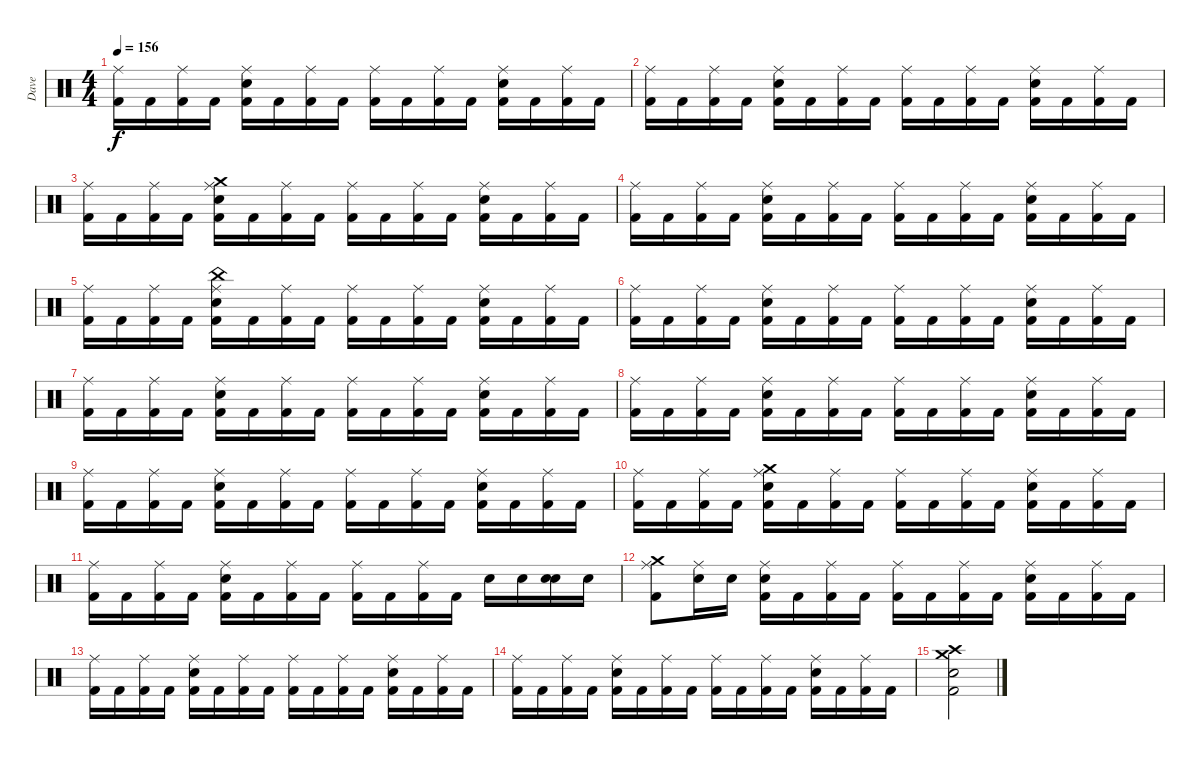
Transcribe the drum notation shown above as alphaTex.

\track ("Dave" "Dave") {instrument percussion}
\staff {score}
\articulation defaults
\ts (4 4)
\tempo 156
\clef neutral
\ks c
("Kick (hit) 2" "Ride (middle)").16{dy f} "Kick (hit) 2".16 ("Ride (middle)" "Kick (hit) 2").16 "Kick (hit) 2".16 ("Ride (middle)" "Electric Snare (hit)" "Kick (hit) 2").16 "Kick (hit) 2".16 ("Ride (middle)" "Kick (hit) 2").16 "Kick (hit) 2".16 ("Ride (middle)" "Kick (hit) 2").16 "Kick (hit) 2".16 ("Ride (middle)" "Kick (hit) 2").16 "Kick (hit) 2".16 ("Ride (middle)" "Electric Snare (hit)" "Kick (hit) 2").16 "Kick (hit) 2".16 ("Ride (middle)" "Kick (hit) 2").16 "Kick (hit) 2".16 |
("Kick (hit) 2" "Ride (middle)").16 "Kick (hit) 2".16 ("Ride (middle)" "Kick (hit) 2").16 "Kick (hit) 2".16 ("Ride (middle)" "Electric Snare (hit)" "Kick (hit) 2").16 "Kick (hit) 2".16 ("Ride (middle)" "Kick (hit) 2").16 "Kick (hit) 2".16 ("Ride (middle)" "Kick (hit) 2").16 "Kick (hit) 2".16 ("Ride (middle)" "Kick (hit) 2").16 "Kick (hit) 2".16 ("Ride (middle)" "Electric Snare (hit)" "Kick (hit) 2").16 "Kick (hit) 2".16 ("Ride (middle)" "Kick (hit) 2").16 "Kick (hit) 2".16 |
("Kick (hit) 2" "Ride (middle)").16 "Kick (hit) 2".16 ("Ride (middle)" "Kick (hit) 2").16 "Kick (hit) 2".16 ("Ride (middle)" "Electric Snare (hit)" "Kick (hit) 2" "Crash medium (hit)").16 "Kick (hit) 2".16 ("Ride (middle)" "Kick (hit) 2").16 "Kick (hit) 2".16 ("Ride (middle)" "Kick (hit) 2").16 "Kick (hit) 2".16 ("Ride (middle)" "Kick (hit) 2").16 "Kick (hit) 2".16 ("Ride (middle)" "Electric Snare (hit)" "Kick (hit) 2").16 "Kick (hit) 2".16 ("Ride (middle)" "Kick (hit) 2").16 "Kick (hit) 2".16 |
("Kick (hit) 2" "Ride (middle)").16 "Kick (hit) 2".16 ("Ride (middle)" "Kick (hit) 2").16 "Kick (hit) 2".16 ("Ride (middle)" "Electric Snare (hit)" "Kick (hit) 2").16 "Kick (hit) 2".16 ("Ride (middle)" "Kick (hit) 2").16 "Kick (hit) 2".16 ("Ride (middle)" "Kick (hit) 2").16 "Kick (hit) 2".16 ("Ride (middle)" "Kick (hit) 2").16 "Kick (hit) 2".16 ("Ride (middle)" "Electric Snare (hit)" "Kick (hit) 2").16 "Kick (hit) 2".16 ("Ride (middle)" "Kick (hit) 2").16 "Kick (hit) 2".16 |
("Kick (hit) 2" "Ride (middle)").16 "Kick (hit) 2".16 ("Ride (middle)" "Kick (hit) 2").16 "Kick (hit) 2".16 ("Ride (middle)" "Electric Snare (hit)" "Kick (hit) 2" "China (hit)").16 "Kick (hit) 2".16 ("Ride (middle)" "Kick (hit) 2").16 "Kick (hit) 2".16 ("Ride (middle)" "Kick (hit) 2").16 "Kick (hit) 2".16 ("Ride (middle)" "Kick (hit) 2").16 "Kick (hit) 2".16 ("Ride (middle)" "Electric Snare (hit)" "Kick (hit) 2").16 "Kick (hit) 2".16 ("Ride (middle)" "Kick (hit) 2").16 "Kick (hit) 2".16 |
("Kick (hit) 2" "Ride (middle)").16 "Kick (hit) 2".16 ("Ride (middle)" "Kick (hit) 2").16 "Kick (hit) 2".16 ("Ride (middle)" "Electric Snare (hit)" "Kick (hit) 2").16 "Kick (hit) 2".16 ("Ride (middle)" "Kick (hit) 2").16 "Kick (hit) 2".16 ("Ride (middle)" "Kick (hit) 2").16 "Kick (hit) 2".16 ("Ride (middle)" "Kick (hit) 2").16 "Kick (hit) 2".16 ("Ride (middle)" "Electric Snare (hit)" "Kick (hit) 2").16 "Kick (hit) 2".16 ("Ride (middle)" "Kick (hit) 2").16 "Kick (hit) 2".16 |
("Kick (hit) 2" "Ride (middle)").16 "Kick (hit) 2".16 ("Ride (middle)" "Kick (hit) 2").16 "Kick (hit) 2".16 ("Ride (middle)" "Electric Snare (hit)" "Kick (hit) 2").16 "Kick (hit) 2".16 ("Ride (middle)" "Kick (hit) 2").16 "Kick (hit) 2".16 ("Ride (middle)" "Kick (hit) 2").16 "Kick (hit) 2".16 ("Ride (middle)" "Kick (hit) 2").16 "Kick (hit) 2".16 ("Ride (middle)" "Electric Snare (hit)" "Kick (hit) 2").16 "Kick (hit) 2".16 ("Ride (middle)" "Kick (hit) 2").16 "Kick (hit) 2".16 |
("Kick (hit) 2" "Ride (middle)").16 "Kick (hit) 2".16 ("Ride (middle)" "Kick (hit) 2").16 "Kick (hit) 2".16 ("Ride (middle)" "Electric Snare (hit)" "Kick (hit) 2").16 "Kick (hit) 2".16 ("Ride (middle)" "Kick (hit) 2").16 "Kick (hit) 2".16 ("Ride (middle)" "Kick (hit) 2").16 "Kick (hit) 2".16 ("Ride (middle)" "Kick (hit) 2").16 "Kick (hit) 2".16 ("Ride (middle)" "Electric Snare (hit)" "Kick (hit) 2").16 "Kick (hit) 2".16 ("Ride (middle)" "Kick (hit) 2").16 "Kick (hit) 2".16 |
("Kick (hit) 2" "Ride (middle)").16 "Kick (hit) 2".16 ("Ride (middle)" "Kick (hit) 2").16 "Kick (hit) 2".16 ("Ride (middle)" "Electric Snare (hit)" "Kick (hit) 2").16 "Kick (hit) 2".16 ("Ride (middle)" "Kick (hit) 2").16 "Kick (hit) 2".16 ("Ride (middle)" "Kick (hit) 2").16 "Kick (hit) 2".16 ("Ride (middle)" "Kick (hit) 2").16 "Kick (hit) 2".16 ("Ride (middle)" "Electric Snare (hit)" "Kick (hit) 2").16 "Kick (hit) 2".16 ("Ride (middle)" "Kick (hit) 2").16 "Kick (hit) 2".16 |
("Kick (hit) 2" "Ride (middle)").16 "Kick (hit) 2".16 ("Ride (middle)" "Kick (hit) 2").16 "Kick (hit) 2".16 ("Ride (middle)" "Electric Snare (hit)" "Kick (hit) 2" "Crash medium (hit)").16 "Kick (hit) 2".16 ("Ride (middle)" "Kick (hit) 2").16 "Kick (hit) 2".16 ("Ride (middle)" "Kick (hit) 2").16 "Kick (hit) 2".16 ("Ride (middle)" "Kick (hit) 2").16 "Kick (hit) 2".16 ("Ride (middle)" "Electric Snare (hit)" "Kick (hit) 2").16 "Kick (hit) 2".16 ("Ride (middle)" "Kick (hit) 2").16 "Kick (hit) 2".16 |
("Kick (hit) 2" "Ride (middle)").16 "Kick (hit) 2".16 ("Ride (middle)" "Kick (hit) 2").16 "Kick (hit) 2".16 ("Ride (middle)" "Electric Snare (hit)" "Kick (hit) 2").16 "Kick (hit) 2".16 ("Ride (middle)" "Kick (hit) 2").16 "Kick (hit) 2".16 ("Ride (middle)" "Kick (hit) 2").16 "Kick (hit) 2".16 ("Ride (middle)" "Kick (hit) 2").16 "Kick (hit) 2".16 "Electric Snare (hit)".16 "Electric Snare (hit)".16 ("Electric Snare (hit)" "Electric Snare (hit)").16 "Electric Snare (hit)".16 |
("Ride (middle)" "Crash medium (hit)" "Kick (hit) 2").8 ("Ride (middle)" "Electric Snare (hit)").16 "Electric Snare (hit)".16 ("Ride (middle)" "Electric Snare (hit)" "Kick (hit) 2").16 "Kick (hit) 2".16 ("Ride (middle)" "Kick (hit) 2").16 "Kick (hit) 2".16 ("Ride (middle)" "Kick (hit) 2").16 "Kick (hit) 2".16 ("Ride (middle)" "Kick (hit) 2").16 "Kick (hit) 2".16 ("Ride (middle)" "Electric Snare (hit)" "Kick (hit) 2").16 "Kick (hit) 2".16 ("Ride (middle)" "Kick (hit) 2").16 "Kick (hit) 2".16 |
("Kick (hit) 2" "Ride (middle)").16 "Kick (hit) 2".16 ("Ride (middle)" "Kick (hit) 2").16 "Kick (hit) 2".16 ("Ride (middle)" "Electric Snare (hit)" "Kick (hit) 2").16 "Kick (hit) 2".16 ("Ride (middle)" "Kick (hit) 2").16 "Kick (hit) 2".16 ("Ride (middle)" "Kick (hit) 2").16 "Kick (hit) 2".16 ("Ride (middle)" "Kick (hit) 2").16 "Kick (hit) 2".16 ("Ride (middle)" "Electric Snare (hit)" "Kick (hit) 2").16 "Kick (hit) 2".16 ("Ride (middle)" "Kick (hit) 2").16 "Kick (hit) 2".16 |
("Kick (hit) 2" "Ride (middle)").16 "Kick (hit) 2".16 ("Ride (middle)" "Kick (hit) 2").16 "Kick (hit) 2".16 ("Ride (middle)" "Electric Snare (hit)" "Kick (hit) 2").16 "Kick (hit) 2".16 ("Ride (middle)" "Kick (hit) 2").16 "Kick (hit) 2".16 ("Ride (middle)" "Kick (hit) 2").16 "Kick (hit) 2".16 ("Ride (middle)" "Kick (hit) 2").16 "Kick (hit) 2".16 ("Ride (middle)" "Electric Snare (hit)" "Kick (hit) 2").16 "Kick (hit) 2".16 ("Ride (middle)" "Kick (hit) 2").16 "Kick (hit) 2".16 |
("Crash high (hit)" "Crash medium (hit)" "Electric Snare (hit)" "Kick (hit) 2").2
